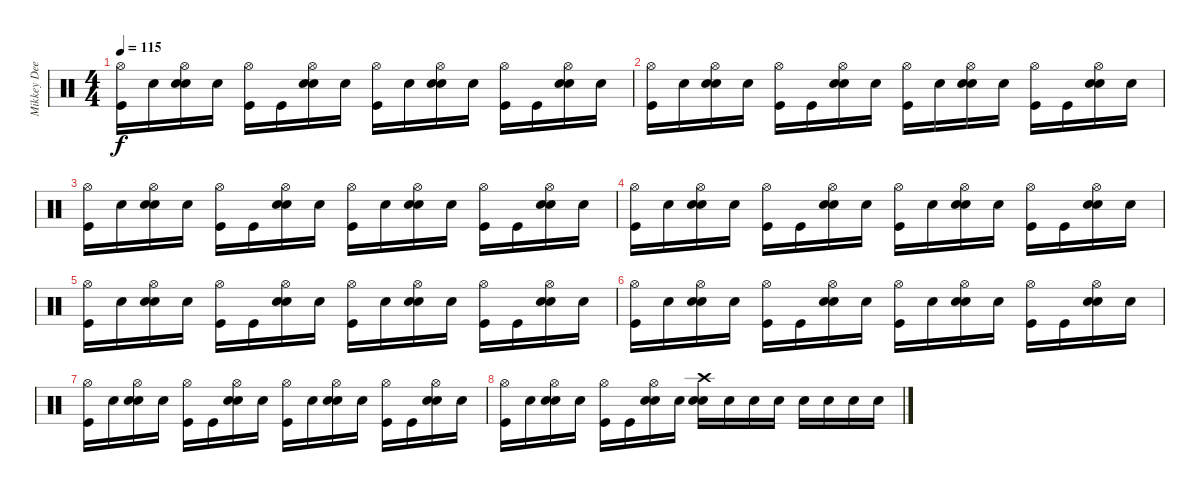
\track ("Mikkey Dee" "Mikkey Dee") {instrument percussion}
\staff {score}
\articulation defaults
\ts (4 4)
\tempo 115
\clef neutral
\ks c
("Hi-Hat (open)" "Kick (hit)").16{dy f} "Snare (hit)".16 ("Hi-Hat (open)" "Electric Snare (hit)" "Snare (hit)").16 "Snare (hit)".16 ("Hi-Hat (open)" "Kick (hit)").16 "Kick (hit)".16 ("Hi-Hat (open)" "Electric Snare (hit)" "Snare (hit)").16 "Snare (hit)".16 ("Hi-Hat (open)" "Kick (hit)").16 "Snare (hit)".16 ("Hi-Hat (open)" "Electric Snare (hit)" "Snare (hit)").16 "Snare (hit)".16 ("Hi-Hat (open)" "Kick (hit)").16 "Kick (hit)".16 ("Hi-Hat (open)" "Electric Snare (hit)" "Snare (hit)").16 "Snare (hit)".16 |
("Hi-Hat (open)" "Kick (hit)").16 "Snare (hit)".16 ("Hi-Hat (open)" "Electric Snare (hit)" "Snare (hit)").16 "Snare (hit)".16 ("Hi-Hat (open)" "Kick (hit)").16 "Kick (hit)".16 ("Hi-Hat (open)" "Electric Snare (hit)" "Snare (hit)").16 "Snare (hit)".16 ("Hi-Hat (open)" "Kick (hit)").16 "Snare (hit)".16 ("Hi-Hat (open)" "Electric Snare (hit)" "Snare (hit)").16 "Snare (hit)".16 ("Hi-Hat (open)" "Kick (hit)").16 "Kick (hit)".16 ("Hi-Hat (open)" "Electric Snare (hit)" "Snare (hit)").16 "Snare (hit)".16 |
("Hi-Hat (open)" "Kick (hit)").16 "Snare (hit)".16 ("Hi-Hat (open)" "Electric Snare (hit)" "Snare (hit)").16 "Snare (hit)".16 ("Hi-Hat (open)" "Kick (hit)").16 "Kick (hit)".16 ("Hi-Hat (open)" "Electric Snare (hit)" "Snare (hit)").16 "Snare (hit)".16 ("Hi-Hat (open)" "Kick (hit)").16 "Snare (hit)".16 ("Hi-Hat (open)" "Electric Snare (hit)" "Snare (hit)").16 "Snare (hit)".16 ("Hi-Hat (open)" "Kick (hit)").16 "Kick (hit)".16 ("Hi-Hat (open)" "Electric Snare (hit)" "Snare (hit)").16 "Snare (hit)".16 |
("Hi-Hat (open)" "Kick (hit)").16 "Snare (hit)".16 ("Hi-Hat (open)" "Electric Snare (hit)" "Snare (hit)").16 "Snare (hit)".16 ("Hi-Hat (open)" "Kick (hit)").16 "Kick (hit)".16 ("Hi-Hat (open)" "Electric Snare (hit)" "Snare (hit)").16 "Snare (hit)".16 ("Hi-Hat (open)" "Kick (hit)").16 "Snare (hit)".16 ("Hi-Hat (open)" "Electric Snare (hit)" "Snare (hit)").16 "Snare (hit)".16 ("Hi-Hat (open)" "Kick (hit)").16 "Kick (hit)".16 ("Hi-Hat (open)" "Electric Snare (hit)" "Snare (hit)").16 "Snare (hit)".16 |
("Hi-Hat (open)" "Kick (hit)").16 "Snare (hit)".16 ("Hi-Hat (open)" "Electric Snare (hit)" "Snare (hit)").16 "Snare (hit)".16 ("Hi-Hat (open)" "Kick (hit)").16 "Kick (hit)".16 ("Hi-Hat (open)" "Electric Snare (hit)" "Snare (hit)").16 "Snare (hit)".16 ("Hi-Hat (open)" "Kick (hit)").16 "Snare (hit)".16 ("Hi-Hat (open)" "Electric Snare (hit)" "Snare (hit)").16 "Snare (hit)".16 ("Hi-Hat (open)" "Kick (hit)").16 "Kick (hit)".16 ("Hi-Hat (open)" "Electric Snare (hit)" "Snare (hit)").16 "Snare (hit)".16 |
("Hi-Hat (open)" "Kick (hit)").16 "Snare (hit)".16 ("Hi-Hat (open)" "Electric Snare (hit)" "Snare (hit)").16 "Snare (hit)".16 ("Hi-Hat (open)" "Kick (hit)").16 "Kick (hit)".16 ("Hi-Hat (open)" "Electric Snare (hit)" "Snare (hit)").16 "Snare (hit)".16 ("Hi-Hat (open)" "Kick (hit)").16 "Snare (hit)".16 ("Hi-Hat (open)" "Electric Snare (hit)" "Snare (hit)").16 "Snare (hit)".16 ("Hi-Hat (open)" "Kick (hit)").16 "Kick (hit)".16 ("Hi-Hat (open)" "Electric Snare (hit)" "Snare (hit)").16 "Snare (hit)".16 |
("Hi-Hat (open)" "Kick (hit)").16 "Snare (hit)".16 ("Hi-Hat (open)" "Electric Snare (hit)" "Snare (hit)").16 "Snare (hit)".16 ("Hi-Hat (open)" "Kick (hit)").16 "Kick (hit)".16 ("Hi-Hat (open)" "Electric Snare (hit)" "Snare (hit)").16 "Snare (hit)".16 ("Hi-Hat (open)" "Kick (hit)").16 "Snare (hit)".16 ("Hi-Hat (open)" "Electric Snare (hit)" "Snare (hit)").16 "Snare (hit)".16 ("Hi-Hat (open)" "Kick (hit)").16 "Kick (hit)".16 ("Hi-Hat (open)" "Electric Snare (hit)" "Snare (hit)").16 "Snare (hit)".16 |
("Hi-Hat (open)" "Kick (hit)").16 "Snare (hit)".16 ("Hi-Hat (open)" "Electric Snare (hit)" "Snare (hit)").16 "Snare (hit)".16 ("Hi-Hat (open)" "Kick (hit)").16 "Kick (hit)".16 ("Hi-Hat (open)" "Electric Snare (hit)" "Snare (hit)").16 "Snare (hit)".16 ("Crash high (hit)" "Electric Snare (hit)" "Snare (hit)").16 "Snare (hit)".16 "Snare (hit)".16 "Snare (hit)".16 "Snare (hit)".16 "Snare (hit)".16 "Snare (hit)".16 "Snare (hit)".16
